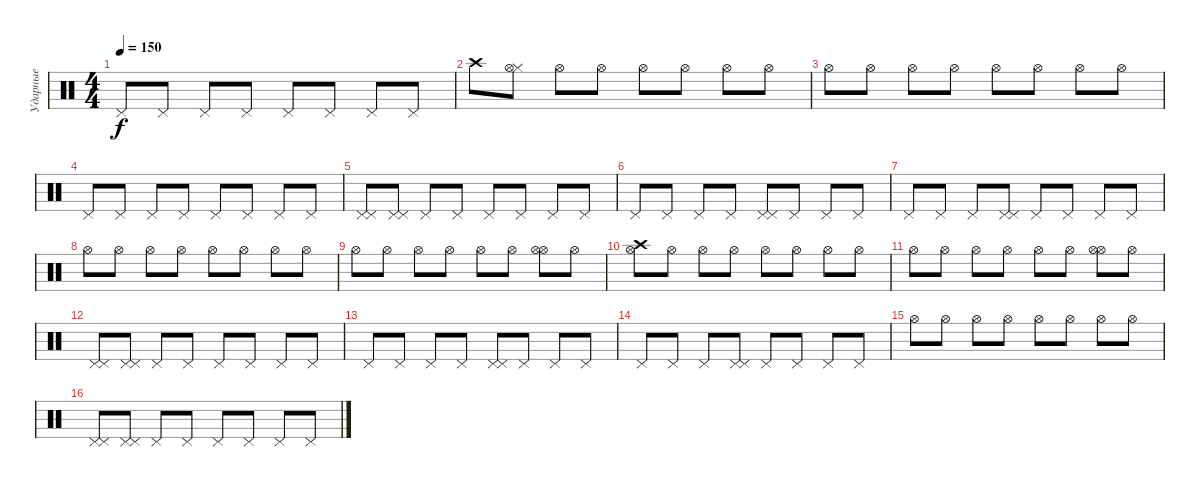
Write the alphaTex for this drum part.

\track ("Ударные" "Ударные") {instrument percussion}
\staff {score}
\articulation defaults
\ts (4 4)
\tempo 150
\clef neutral
\ks c "Pedal Hi-Hat (hit)".8{dy f} "Pedal Hi-Hat (hit)".8 "Pedal Hi-Hat (hit)".8 "Pedal Hi-Hat (hit)".8 "Pedal Hi-Hat (hit)".8 "Pedal Hi-Hat (hit)".8 "Pedal Hi-Hat (hit)".8 "Pedal Hi-Hat (hit)".8
|
"Crash high (hit)".8 ("Hi-Hat (closed)" "Hi-Hat (open)").8 "Hi-Hat (open)".8 "Hi-Hat (open)".8 "Hi-Hat (open)".8 "Hi-Hat (open)".8 "Hi-Hat (open)".8 "Hi-Hat (open)".8 |
"Hi-Hat (open)".8 "Hi-Hat (open)".8 "Hi-Hat (open)".8 "Hi-Hat (open)".8 "Hi-Hat (open)".8 "Hi-Hat (open)".8 "Hi-Hat (open)".8 "Hi-Hat (open)".8 |
"Pedal Hi-Hat (hit)".8 "Pedal Hi-Hat (hit)".8 "Pedal Hi-Hat (hit)".8 "Pedal Hi-Hat (hit)".8 "Pedal Hi-Hat (hit)".8 "Pedal Hi-Hat (hit)".8 "Pedal Hi-Hat (hit)".8 "Pedal Hi-Hat (hit)".8 |
("Pedal Hi-Hat (hit)" "Pedal Hi-Hat (hit)").8 ("Pedal Hi-Hat (hit)" "Pedal Hi-Hat (hit)").8 "Pedal Hi-Hat (hit)".8 "Pedal Hi-Hat (hit)".8 "Pedal Hi-Hat (hit)".8 "Pedal Hi-Hat (hit)".8 "Pedal Hi-Hat (hit)".8 "Pedal Hi-Hat (hit)".8 |
"Pedal Hi-Hat (hit)".8 "Pedal Hi-Hat (hit)".8 "Pedal Hi-Hat (hit)".8 "Pedal Hi-Hat (hit)".8 ("Pedal Hi-Hat (hit)" "Pedal Hi-Hat (hit)").8 "Pedal Hi-Hat (hit)".8 "Pedal Hi-Hat (hit)".8 "Pedal Hi-Hat (hit)".8 |
"Pedal Hi-Hat (hit)".8 "Pedal Hi-Hat (hit)".8 "Pedal Hi-Hat (hit)".8 ("Pedal Hi-Hat (hit)" "Pedal Hi-Hat (hit)").8 "Pedal Hi-Hat (hit)".8 "Pedal Hi-Hat (hit)".8 "Pedal Hi-Hat (hit)".8 "Pedal Hi-Hat (hit)".8 |
"Hi-Hat (open)".8 "Hi-Hat (open)".8 "Hi-Hat (open)".8 "Hi-Hat (open)".8 "Hi-Hat (open)".8 "Hi-Hat (open)".8 "Hi-Hat (open)".8 "Hi-Hat (open)".8 |
"Hi-Hat (open)".8 "Hi-Hat (open)".8 "Hi-Hat (open)".8 "Hi-Hat (open)".8 "Hi-Hat (open)".8 "Hi-Hat (open)".8 ("Hi-Hat (open)" "Hi-Hat (open)").8 "Hi-Hat (open)".8 |
("Hi-Hat (open)" "Crash high (hit)").8 "Hi-Hat (open)".8 "Hi-Hat (open)".8 "Hi-Hat (open)".8 "Hi-Hat (open)".8 "Hi-Hat (open)".8 "Hi-Hat (open)".8 "Hi-Hat (open)".8 |
"Hi-Hat (open)".8 "Hi-Hat (open)".8 "Hi-Hat (open)".8 "Hi-Hat (open)".8 "Hi-Hat (open)".8 "Hi-Hat (open)".8 ("Hi-Hat (open)" "Hi-Hat (open)").8 "Hi-Hat (open)".8 |
("Pedal Hi-Hat (hit)" "Pedal Hi-Hat (hit)").8 ("Pedal Hi-Hat (hit)" "Pedal Hi-Hat (hit)").8 "Pedal Hi-Hat (hit)".8 "Pedal Hi-Hat (hit)".8 "Pedal Hi-Hat (hit)".8 "Pedal Hi-Hat (hit)".8 "Pedal Hi-Hat (hit)".8 "Pedal Hi-Hat (hit)".8 |
"Pedal Hi-Hat (hit)".8 "Pedal Hi-Hat (hit)".8 "Pedal Hi-Hat (hit)".8 "Pedal Hi-Hat (hit)".8 ("Pedal Hi-Hat (hit)" "Pedal Hi-Hat (hit)").8 "Pedal Hi-Hat (hit)".8 "Pedal Hi-Hat (hit)".8 "Pedal Hi-Hat (hit)".8 |
"Pedal Hi-Hat (hit)".8 "Pedal Hi-Hat (hit)".8 "Pedal Hi-Hat (hit)".8 ("Pedal Hi-Hat (hit)" "Pedal Hi-Hat (hit)").8 "Pedal Hi-Hat (hit)".8 "Pedal Hi-Hat (hit)".8 "Pedal Hi-Hat (hit)".8 "Pedal Hi-Hat (hit)".8 |
"Hi-Hat (open)".8 "Hi-Hat (open)".8 "Hi-Hat (open)".8 "Hi-Hat (open)".8 "Hi-Hat (open)".8 "Hi-Hat (open)".8 "Hi-Hat (open)".8 "Hi-Hat (open)".8 |
("Pedal Hi-Hat (hit)" "Pedal Hi-Hat (hit)").8 ("Pedal Hi-Hat (hit)" "Pedal Hi-Hat (hit)").8 "Pedal Hi-Hat (hit)".8 "Pedal Hi-Hat (hit)".8 "Pedal Hi-Hat (hit)".8 "Pedal Hi-Hat (hit)".8 "Pedal Hi-Hat (hit)".8 "Pedal Hi-Hat (hit)".8
